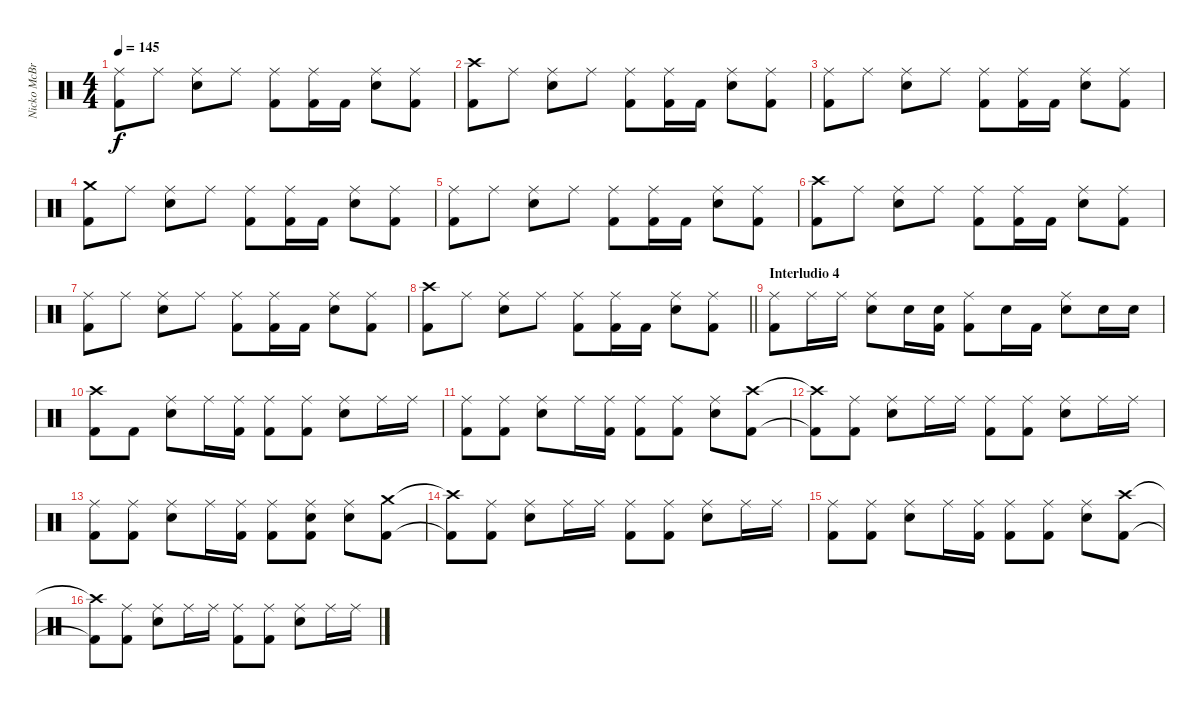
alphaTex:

\track ("Nicko McBrain" "Nicko McBr") {instrument percussion}
\staff {score}
\articulation defaults
\ts (4 4)
\tempo 145
\clef neutral
\ks c
("Ride (middle)" "Kick (hit) 2").8{dy f} "Ride (middle)".8 ("Ride (middle)" "Snare (hit) 2").8 "Ride (middle)".8 ("Ride (middle)" "Kick (hit) 2").8 ("Ride (middle)" "Kick (hit) 2").16 "Kick (hit) 2".16 ("Ride (middle)" "Snare (hit) 2").8 ("Ride (middle)" "Kick (hit) 2").8 |
("Crash high (hit)" "Kick (hit) 2").8 "Ride (middle)".8 ("Ride (middle)" "Snare (hit) 2").8 "Ride (middle)".8 ("Ride (middle)" "Kick (hit) 2").8 ("Ride (middle)" "Kick (hit) 2").16 "Kick (hit) 2".16 ("Ride (middle)" "Snare (hit) 2").8 ("Ride (middle)" "Kick (hit) 2").8 |
("Ride (middle)" "Kick (hit) 2").8 "Ride (middle)".8 ("Ride (middle)" "Snare (hit) 2").8 "Ride (middle)".8 ("Ride (middle)" "Kick (hit) 2").8 ("Ride (middle)" "Kick (hit) 2").16 "Kick (hit) 2".16 ("Ride (middle)" "Snare (hit) 2").8 ("Ride (middle)" "Kick (hit) 2").8 |
("Crash medium (hit)" "Kick (hit) 2").8 "Ride (middle)".8 ("Ride (middle)" "Snare (hit) 2").8 "Ride (middle)".8 ("Ride (middle)" "Kick (hit) 2").8 ("Ride (middle)" "Kick (hit) 2").16 "Kick (hit) 2".16 ("Ride (middle)" "Snare (hit) 2").8 ("Ride (middle)" "Kick (hit) 2").8 |
("Ride (middle)" "Kick (hit) 2").8 "Ride (middle)".8 ("Ride (middle)" "Snare (hit) 2").8 "Ride (middle)".8 ("Ride (middle)" "Kick (hit) 2").8 ("Ride (middle)" "Kick (hit) 2").16 "Kick (hit) 2".16 ("Ride (middle)" "Snare (hit) 2").8 ("Ride (middle)" "Kick (hit) 2").8 |
("Crash high (hit)" "Kick (hit) 2").8 "Ride (middle)".8 ("Ride (middle)" "Snare (hit) 2").8 "Ride (middle)".8 ("Ride (middle)" "Kick (hit) 2").8 ("Ride (middle)" "Kick (hit) 2").16 "Kick (hit) 2".16 ("Ride (middle)" "Snare (hit) 2").8 ("Ride (middle)" "Kick (hit) 2").8 |
("Ride (middle)" "Kick (hit) 2").8 "Ride (middle)".8 ("Ride (middle)" "Snare (hit) 2").8 "Ride (middle)".8 ("Ride (middle)" "Kick (hit) 2").8 ("Ride (middle)" "Kick (hit) 2").16 "Kick (hit) 2".16 ("Ride (middle)" "Snare (hit) 2").8 ("Ride (middle)" "Kick (hit) 2").8 |
\barLineRight lightlight
("Crash high (hit)" "Kick (hit) 2").8 "Ride (middle)".8 ("Ride (middle)" "Snare (hit) 2").8 "Ride (middle)".8 ("Ride (middle)" "Kick (hit) 2").8 ("Ride (middle)" "Kick (hit) 2").16 "Kick (hit) 2".16 ("Ride (middle)" "Snare (hit) 2").8 ("Ride (middle)" "Kick (hit) 2").8 |
\section ("" "Interludio 4")
("Ride (middle)" "Kick (hit) 2").8 "Ride (middle)".16 "Ride (middle)".16 ("Ride (middle)" "Snare (hit) 2").8 "Snare (hit) 2".16 ("Snare (hit) 2" "Kick (hit) 2").16 ("Ride (middle)" "Kick (hit) 2").8 "Snare (hit) 2".16 "Kick (hit) 2".16 ("Ride (middle)" "Snare (hit) 2").8 "Snare (hit) 2".16 "Snare (hit) 2".16 |
("Crash high (hit)" "Kick (hit) 2").8 "Kick (hit) 2".8 ("Ride (middle)" "Snare (hit) 2").8 "Ride (middle)".16 ("Ride (middle)" "Kick (hit) 2").16 ("Ride (middle)" "Kick (hit) 2").8 ("Ride (middle)" "Kick (hit) 2").8 ("Ride (middle)" "Snare (hit) 2").8 "Ride (middle)".16 "Ride (middle)".16 |
("Ride (middle)" "Kick (hit) 2").8 ("Ride (middle)" "Kick (hit) 2").8 ("Ride (middle)" "Snare (hit) 2").8 "Ride (middle)".16 ("Ride (middle)" "Kick (hit) 2").16 ("Ride (middle)" "Kick (hit) 2").8 ("Ride (middle)" "Kick (hit) 2").8 ("Ride (middle)" "Snare (hit) 2").8 ("Crash high (hit)" "Kick (hit) 2").8 |
("Crash high (hit)"{t} "Kick (hit) 2"{t}).8 ("Ride (middle)" "Kick (hit) 2").8 ("Ride (middle)" "Snare (hit) 2").8 "Ride (middle)".16 "Ride (middle)".16 ("Ride (middle)" "Kick (hit) 2").8 ("Ride (middle)" "Kick (hit) 2").8 ("Ride (middle)" "Snare (hit) 2").8 "Ride (middle)".16 "Ride (middle)".16 |
("Ride (middle)" "Kick (hit) 2").8 ("Ride (middle)" "Kick (hit) 2").8 ("Ride (middle)" "Snare (hit) 2").8 "Ride (middle)".16 ("Ride (middle)" "Kick (hit) 2").16 ("Ride (middle)" "Kick (hit) 2").8 ("Ride (middle)" "Snare (hit) 2" "Kick (hit) 2").8 ("Ride (middle)" "Snare (hit) 2").8 ("Crash medium (hit)" "Kick (hit) 2").8 |
("Crash high (hit)"{t} "Kick (hit) 2"{t}).8 ("Ride (middle)" "Kick (hit) 2").8 ("Ride (middle)" "Snare (hit) 2").8 "Ride (middle)".16 "Ride (middle)".16 ("Ride (middle)" "Kick (hit) 2").8 ("Ride (middle)" "Kick (hit) 2").8 ("Ride (middle)" "Snare (hit) 2").8 "Ride (middle)".16 "Ride (middle)".16 |
("Ride (middle)" "Kick (hit) 2").8 ("Ride (middle)" "Kick (hit) 2").8 ("Ride (middle)" "Snare (hit) 2").8 "Ride (middle)".16 ("Ride (middle)" "Kick (hit) 2").16 ("Ride (middle)" "Kick (hit) 2").8 ("Ride (middle)" "Kick (hit) 2").8 ("Ride (middle)" "Snare (hit) 2").8 ("Crash high (hit)" "Kick (hit) 2").8 |
("Crash high (hit)"{t} "Kick (hit) 2"{t}).8 ("Ride (middle)" "Kick (hit) 2").8 ("Ride (middle)" "Snare (hit) 2").8 "Ride (middle)".16 "Ride (middle)".16 ("Ride (middle)" "Kick (hit) 2").8 ("Ride (middle)" "Kick (hit) 2").8 ("Ride (middle)" "Snare (hit) 2").8 "Ride (middle)".16 "Ride (middle)".16
